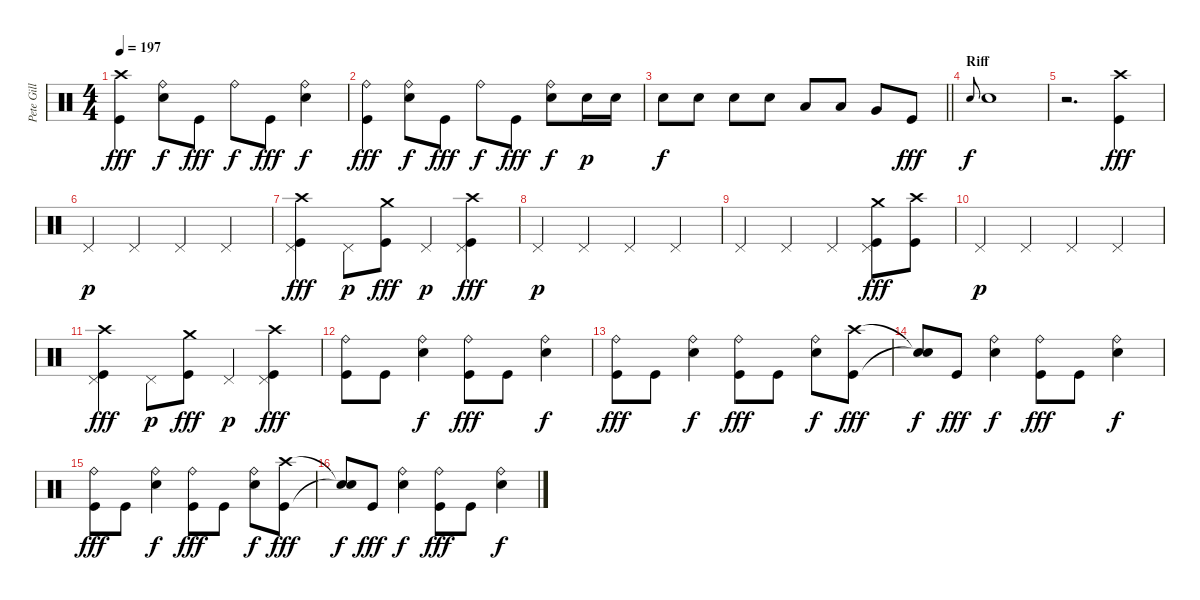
\track ("Pete Gill" "Pete Gill") {instrument percussion}
\staff {score}
\articulation defaults
\ts (4 4)
\tempo 197
\clef neutral
\ks c
("Crash high (hit)" "Kick (hit)").4{dy fff} ("Ride (bell)" "Electric Snare (hit)").8{dy f} "Kick (hit)".8{dy fff} "Ride (bell)".8{dy f} "Kick (hit)".8{dy fff} ("Ride (bell)" "Electric Snare (hit)").4{dy f} |
("Ride (bell)" "Kick (hit)").4{dy fff} ("Ride (bell)" "Electric Snare (hit)").8{dy f} "Kick (hit)".8{dy fff} "Ride (bell)".8{dy f} "Kick (hit)".8{dy fff} ("Ride (bell)" "Electric Snare (hit)").8{dy f} "Electric Snare (hit)".16{dy p} "Electric Snare (hit)".16 |
\barLineRight lightlight "Electric Snare (hit)".8{dy f} "Electric Snare (hit)".8 "Electric Snare (hit)".8 "Electric Snare (hit)".8 "Low Tom (hit)".8 "Low Tom (hit)".8 "Very Low Tom (hit)".8 "Kick (hit)".8{dy fff}
|
\section ("" "Riff")
"Electric Snare (hit)".8{gr onbeat dy f} "Electric Snare (hit)".1 |
r.2{d} ("Crash high (hit)" "Kick (hit)").4{dy fff} |
"Pedal Hi-Hat (hit)".4{dy p} "Pedal Hi-Hat (hit)".4 "Pedal Hi-Hat (hit)".4 "Pedal Hi-Hat (hit)".4 |
("Pedal Hi-Hat (hit)" "Crash high (hit)" "Kick (hit)").4{dy fff} "Pedal Hi-Hat (hit)".8{dy p} ("Crash medium (hit)" "Kick (hit)").8{dy fff} "Pedal Hi-Hat (hit)".4{dy p} ("Pedal Hi-Hat (hit)" "Crash high (hit)" "Kick (hit)").4{dy fff} |
"Pedal Hi-Hat (hit)".4{dy p} "Pedal Hi-Hat (hit)".4 "Pedal Hi-Hat (hit)".4 "Pedal Hi-Hat (hit)".4 |
"Pedal Hi-Hat (hit)".4 "Pedal Hi-Hat (hit)".4 "Pedal Hi-Hat (hit)".4 ("Pedal Hi-Hat (hit)" "Crash medium (hit)" "Kick (hit)").8{dy fff} ("Crash high (hit)" "Kick (hit)").8 |
"Pedal Hi-Hat (hit)".4{dy p} "Pedal Hi-Hat (hit)".4 "Pedal Hi-Hat (hit)".4 "Pedal Hi-Hat (hit)".4 |
("Pedal Hi-Hat (hit)" "Crash high (hit)" "Kick (hit)").4{dy fff} "Pedal Hi-Hat (hit)".8{dy p} ("Crash medium (hit)" "Kick (hit)").8{dy fff} "Pedal Hi-Hat (hit)".4{dy p} ("Pedal Hi-Hat (hit)" "Crash high (hit)" "Kick (hit)").4{dy fff} |
("Ride (bell)" "Kick (hit)").8 "Kick (hit)".8 ("Ride (bell)" "Electric Snare (hit)").4{dy f} ("Ride (bell)" "Kick (hit)").8{dy fff} "Kick (hit)".8 ("Ride (bell)" "Electric Snare (hit)").4{dy f} |
("Ride (bell)" "Kick (hit)").8{dy fff} "Kick (hit)".8 ("Ride (bell)" "Electric Snare (hit)").4{dy f} ("Ride (bell)" "Kick (hit)").8{dy fff} "Kick (hit)".8 ("Ride (bell)" "Electric Snare (hit)").8{dy f} ("Crash high (hit)" "Kick (hit)").8{dy fff} |
("Snare (hit)"{t} "Snare (hit)"{t}).8{dy f} "Kick (hit)".8{dy fff} ("Ride (bell)" "Electric Snare (hit)").4{dy f} ("Ride (bell)" "Kick (hit)").8{dy fff} "Kick (hit)".8 ("Ride (bell)" "Electric Snare (hit)").4{dy f} |
("Ride (bell)" "Kick (hit)").8{dy fff} "Kick (hit)".8 ("Ride (bell)" "Electric Snare (hit)").4{dy f} ("Ride (bell)" "Kick (hit)").8{dy fff} "Kick (hit)".8 ("Ride (bell)" "Electric Snare (hit)").8{dy f} ("Crash high (hit)" "Kick (hit)").8{dy fff} |
("Snare (hit)"{t} "Snare (hit)"{t}).8{dy f} "Kick (hit)".8{dy fff} ("Ride (bell)" "Electric Snare (hit)").4{dy f} ("Ride (bell)" "Kick (hit)").8{dy fff} "Kick (hit)".8 ("Ride (bell)" "Electric Snare (hit)").4{dy f}
